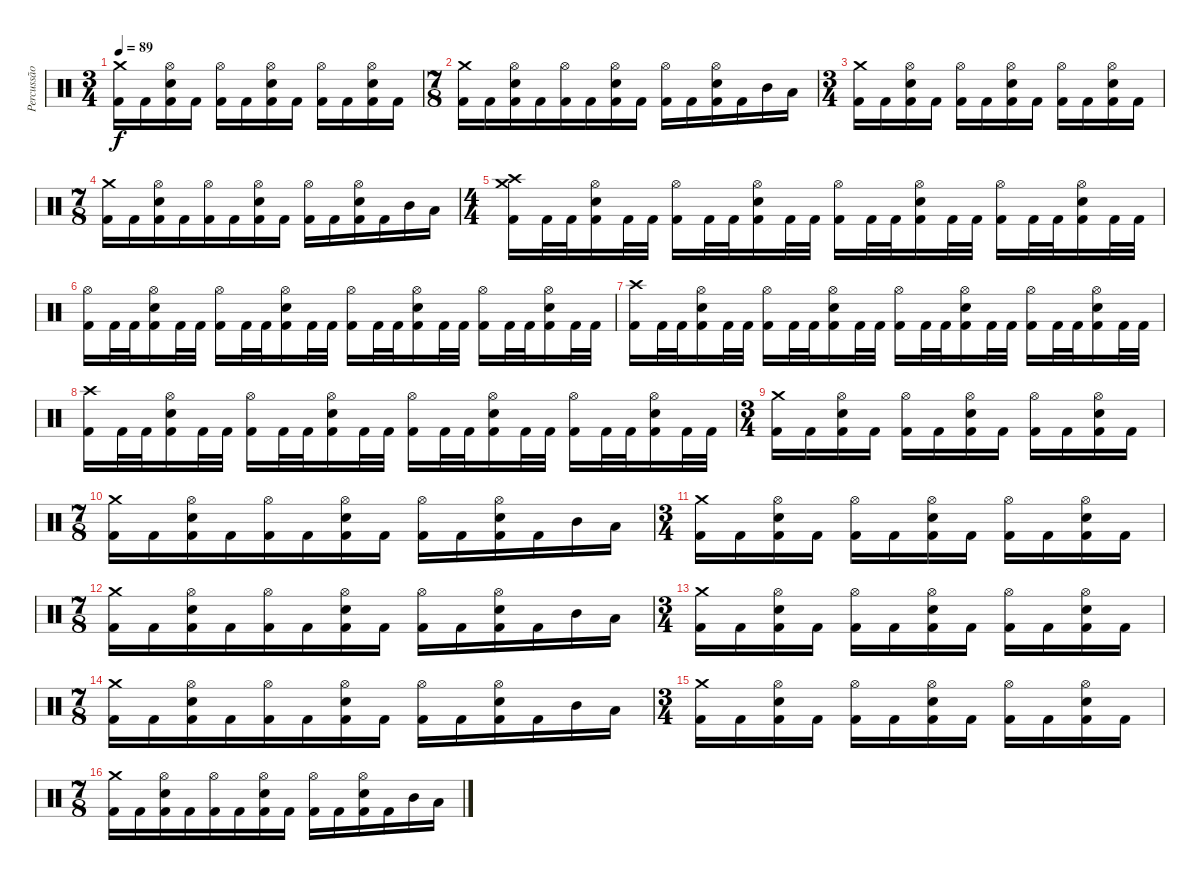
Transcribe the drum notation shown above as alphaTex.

\track ("Percussão" "Percussão") {instrument percussion}
\staff {score}
\articulation defaults
\ts (3 4)
\tempo 89
\clef neutral
\ks c
("Crash medium (hit)" "Kick (hit) 2").16{dy f} "Kick (hit) 2".16 ("Hi-Hat (open)" "Snare (hit) 2" "Kick (hit) 2").16 "Kick (hit) 2".16 ("Hi-Hat (open)" "Kick (hit) 2").16 "Kick (hit) 2".16 ("Hi-Hat (open)" "Snare (hit) 2" "Kick (hit) 2").16 "Kick (hit) 2".16 ("Hi-Hat (open)" "Kick (hit) 2").16 "Kick (hit) 2".16 ("Hi-Hat (open)" "Snare (hit) 2" "Kick (hit) 2").16 "Kick (hit) 2".16 |
\ts (7 8)
("Crash medium (hit)" "Kick (hit) 2").16 "Kick (hit) 2".16 ("Hi-Hat (open)" "Snare (hit) 2" "Kick (hit) 2").16 "Kick (hit) 2".16 ("Hi-Hat (open)" "Kick (hit) 2").16 "Kick (hit) 2".16 ("Hi-Hat (open)" "Snare (hit) 2" "Kick (hit) 2").16 "Kick (hit) 2".16 ("Hi-Hat (open)" "Kick (hit) 2").16 "Kick (hit) 2".16 ("Hi-Hat (open)" "Snare (hit) 2" "Kick (hit) 2").16 "Kick (hit) 2".16 "Mid Tom (hit)".16 "Low Tom (hit)".16 |
\ts (3 4)
("Crash medium (hit)" "Kick (hit) 2").16 "Kick (hit) 2".16 ("Hi-Hat (open)" "Snare (hit) 2" "Kick (hit) 2").16 "Kick (hit) 2".16 ("Hi-Hat (open)" "Kick (hit) 2").16 "Kick (hit) 2".16 ("Hi-Hat (open)" "Snare (hit) 2" "Kick (hit) 2").16 "Kick (hit) 2".16 ("Hi-Hat (open)" "Kick (hit) 2").16 "Kick (hit) 2".16 ("Hi-Hat (open)" "Snare (hit) 2" "Kick (hit) 2").16 "Kick (hit) 2".16 |
\ts (7 8)
("Crash medium (hit)" "Kick (hit) 2").16 "Kick (hit) 2".16 ("Hi-Hat (open)" "Snare (hit) 2" "Kick (hit) 2").16 "Kick (hit) 2".16 ("Hi-Hat (open)" "Kick (hit) 2").16 "Kick (hit) 2".16 ("Hi-Hat (open)" "Snare (hit) 2" "Kick (hit) 2").16 "Kick (hit) 2".16 ("Hi-Hat (open)" "Kick (hit) 2").16 "Kick (hit) 2".16 ("Hi-Hat (open)" "Snare (hit) 2" "Kick (hit) 2").16 "Kick (hit) 2".16 "Mid Tom (hit)".16 "Low Tom (hit)".16 |
\ts (4 4)
("Crash high (hit)" "Crash medium (hit)" "Kick (hit) 2").16 "Kick (hit) 2".32 "Kick (hit) 2".32 ("Hi-Hat (open)" "Snare (hit) 2" "Kick (hit) 2").16 "Kick (hit) 2".32 "Kick (hit) 2".32 ("Hi-Hat (open)" "Kick (hit) 2").16 "Kick (hit) 2".32 "Kick (hit) 2".32 ("Hi-Hat (open)" "Snare (hit) 2" "Kick (hit) 2").16 "Kick (hit) 2".32 "Kick (hit) 2".32 ("Hi-Hat (open)" "Kick (hit) 2").16 "Kick (hit) 2".32 "Kick (hit) 2".32 ("Hi-Hat (open)" "Snare (hit) 2" "Kick (hit) 2").16 "Kick (hit) 2".32 "Kick (hit) 2".32 ("Hi-Hat (open)" "Kick (hit) 2").16 "Kick (hit) 2".32 "Kick (hit) 2".32 ("Hi-Hat (open)" "Snare (hit) 2" "Kick (hit) 2").16 "Kick (hit) 2".32 "Kick (hit) 2".32 |
("Hi-Hat (open)" "Kick (hit) 2").16 "Kick (hit) 2".32 "Kick (hit) 2".32 ("Hi-Hat (open)" "Snare (hit) 2" "Kick (hit) 2").16 "Kick (hit) 2".32 "Kick (hit) 2".32 ("Hi-Hat (open)" "Kick (hit) 2").16 "Kick (hit) 2".32 "Kick (hit) 2".32 ("Hi-Hat (open)" "Snare (hit) 2" "Kick (hit) 2").16 "Kick (hit) 2".32 "Kick (hit) 2".32 ("Hi-Hat (open)" "Kick (hit) 2").16 "Kick (hit) 2".32 "Kick (hit) 2".32 ("Hi-Hat (open)" "Snare (hit) 2" "Kick (hit) 2").16 "Kick (hit) 2".32 "Kick (hit) 2".32 ("Hi-Hat (open)" "Kick (hit) 2").16 "Kick (hit) 2".32 "Kick (hit) 2".32 ("Hi-Hat (open)" "Snare (hit) 2" "Kick (hit) 2").16 "Kick (hit) 2".32 "Kick (hit) 2".32 |
("Crash high (hit)" "Kick (hit) 2").16 "Kick (hit) 2".32 "Kick (hit) 2".32 ("Hi-Hat (open)" "Snare (hit) 2" "Kick (hit) 2").16 "Kick (hit) 2".32 "Kick (hit) 2".32 ("Hi-Hat (open)" "Kick (hit) 2").16 "Kick (hit) 2".32 "Kick (hit) 2".32 ("Hi-Hat (open)" "Snare (hit) 2" "Kick (hit) 2").16 "Kick (hit) 2".32 "Kick (hit) 2".32 ("Hi-Hat (open)" "Kick (hit) 2").16 "Kick (hit) 2".32 "Kick (hit) 2".32 ("Hi-Hat (open)" "Snare (hit) 2" "Kick (hit) 2").16 "Kick (hit) 2".32 "Kick (hit) 2".32 ("Hi-Hat (open)" "Kick (hit) 2").16 "Kick (hit) 2".32 "Kick (hit) 2".32 ("Hi-Hat (open)" "Snare (hit) 2" "Kick (hit) 2").16 "Kick (hit) 2".32 "Kick (hit) 2".32 |
("Crash high (hit)" "Kick (hit) 2").16 "Kick (hit) 2".32 "Kick (hit) 2".32 ("Hi-Hat (open)" "Snare (hit) 2" "Kick (hit) 2").16 "Kick (hit) 2".32 "Kick (hit) 2".32 ("Hi-Hat (open)" "Kick (hit) 2").16 "Kick (hit) 2".32 "Kick (hit) 2".32 ("Hi-Hat (open)" "Snare (hit) 2" "Kick (hit) 2").16 "Kick (hit) 2".32 "Kick (hit) 2".32 ("Hi-Hat (open)" "Kick (hit) 2").16 "Kick (hit) 2".32 "Kick (hit) 2".32 ("Hi-Hat (open)" "Snare (hit) 2" "Kick (hit) 2").16 "Kick (hit) 2".32 "Kick (hit) 2".32 ("Hi-Hat (open)" "Kick (hit) 2").16 "Kick (hit) 2".32 "Kick (hit) 2".32 ("Hi-Hat (open)" "Snare (hit) 2" "Kick (hit) 2").16 "Kick (hit) 2".32 "Kick (hit) 2".32 |
\ts (3 4)
("Crash medium (hit)" "Kick (hit) 2").16 "Kick (hit) 2".16 ("Hi-Hat (open)" "Snare (hit) 2" "Kick (hit) 2").16 "Kick (hit) 2".16 ("Hi-Hat (open)" "Kick (hit) 2").16 "Kick (hit) 2".16 ("Hi-Hat (open)" "Snare (hit) 2" "Kick (hit) 2").16 "Kick (hit) 2".16 ("Hi-Hat (open)" "Kick (hit) 2").16 "Kick (hit) 2".16 ("Hi-Hat (open)" "Snare (hit) 2" "Kick (hit) 2").16 "Kick (hit) 2".16 |
\ts (7 8)
("Crash medium (hit)" "Kick (hit) 2").16 "Kick (hit) 2".16 ("Hi-Hat (open)" "Snare (hit) 2" "Kick (hit) 2").16 "Kick (hit) 2".16 ("Hi-Hat (open)" "Kick (hit) 2").16 "Kick (hit) 2".16 ("Hi-Hat (open)" "Snare (hit) 2" "Kick (hit) 2").16 "Kick (hit) 2".16 ("Hi-Hat (open)" "Kick (hit) 2").16 "Kick (hit) 2".16 ("Hi-Hat (open)" "Snare (hit) 2" "Kick (hit) 2").16 "Kick (hit) 2".16 "Mid Tom (hit)".16 "Low Tom (hit)".16 |
\ts (3 4)
("Crash medium (hit)" "Kick (hit) 2").16 "Kick (hit) 2".16 ("Hi-Hat (open)" "Snare (hit) 2" "Kick (hit) 2").16 "Kick (hit) 2".16 ("Hi-Hat (open)" "Kick (hit) 2").16 "Kick (hit) 2".16 ("Hi-Hat (open)" "Snare (hit) 2" "Kick (hit) 2").16 "Kick (hit) 2".16 ("Hi-Hat (open)" "Kick (hit) 2").16 "Kick (hit) 2".16 ("Hi-Hat (open)" "Snare (hit) 2" "Kick (hit) 2").16 "Kick (hit) 2".16 |
\ts (7 8)
("Crash medium (hit)" "Kick (hit) 2").16 "Kick (hit) 2".16 ("Hi-Hat (open)" "Snare (hit) 2" "Kick (hit) 2").16 "Kick (hit) 2".16 ("Hi-Hat (open)" "Kick (hit) 2").16 "Kick (hit) 2".16 ("Hi-Hat (open)" "Snare (hit) 2" "Kick (hit) 2").16 "Kick (hit) 2".16 ("Hi-Hat (open)" "Kick (hit) 2").16 "Kick (hit) 2".16 ("Hi-Hat (open)" "Snare (hit) 2" "Kick (hit) 2").16 "Kick (hit) 2".16 "Mid Tom (hit)".16 "Low Tom (hit)".16 |
\ts (3 4)
("Crash medium (hit)" "Kick (hit) 2").16 "Kick (hit) 2".16 ("Hi-Hat (open)" "Snare (hit) 2" "Kick (hit) 2").16 "Kick (hit) 2".16 ("Hi-Hat (open)" "Kick (hit) 2").16 "Kick (hit) 2".16 ("Hi-Hat (open)" "Snare (hit) 2" "Kick (hit) 2").16 "Kick (hit) 2".16 ("Hi-Hat (open)" "Kick (hit) 2").16 "Kick (hit) 2".16 ("Hi-Hat (open)" "Snare (hit) 2" "Kick (hit) 2").16 "Kick (hit) 2".16 |
\ts (7 8)
("Crash medium (hit)" "Kick (hit) 2").16 "Kick (hit) 2".16 ("Hi-Hat (open)" "Snare (hit) 2" "Kick (hit) 2").16 "Kick (hit) 2".16 ("Hi-Hat (open)" "Kick (hit) 2").16 "Kick (hit) 2".16 ("Hi-Hat (open)" "Snare (hit) 2" "Kick (hit) 2").16 "Kick (hit) 2".16 ("Hi-Hat (open)" "Kick (hit) 2").16 "Kick (hit) 2".16 ("Hi-Hat (open)" "Snare (hit) 2" "Kick (hit) 2").16 "Kick (hit) 2".16 "Mid Tom (hit)".16 "Low Tom (hit)".16 |
\ts (3 4)
("Crash medium (hit)" "Kick (hit) 2").16 "Kick (hit) 2".16 ("Hi-Hat (open)" "Snare (hit) 2" "Kick (hit) 2").16 "Kick (hit) 2".16 ("Hi-Hat (open)" "Kick (hit) 2").16 "Kick (hit) 2".16 ("Hi-Hat (open)" "Snare (hit) 2" "Kick (hit) 2").16 "Kick (hit) 2".16 ("Hi-Hat (open)" "Kick (hit) 2").16 "Kick (hit) 2".16 ("Hi-Hat (open)" "Snare (hit) 2" "Kick (hit) 2").16 "Kick (hit) 2".16 |
\ts (7 8)
("Crash medium (hit)" "Kick (hit) 2").16 "Kick (hit) 2".16 ("Hi-Hat (open)" "Snare (hit) 2" "Kick (hit) 2").16 "Kick (hit) 2".16 ("Hi-Hat (open)" "Kick (hit) 2").16 "Kick (hit) 2".16 ("Hi-Hat (open)" "Snare (hit) 2" "Kick (hit) 2").16 "Kick (hit) 2".16 ("Hi-Hat (open)" "Kick (hit) 2").16 "Kick (hit) 2".16 ("Hi-Hat (open)" "Snare (hit) 2" "Kick (hit) 2").16 "Kick (hit) 2".16 "Mid Tom (hit)".16 "Low Tom (hit)".16
